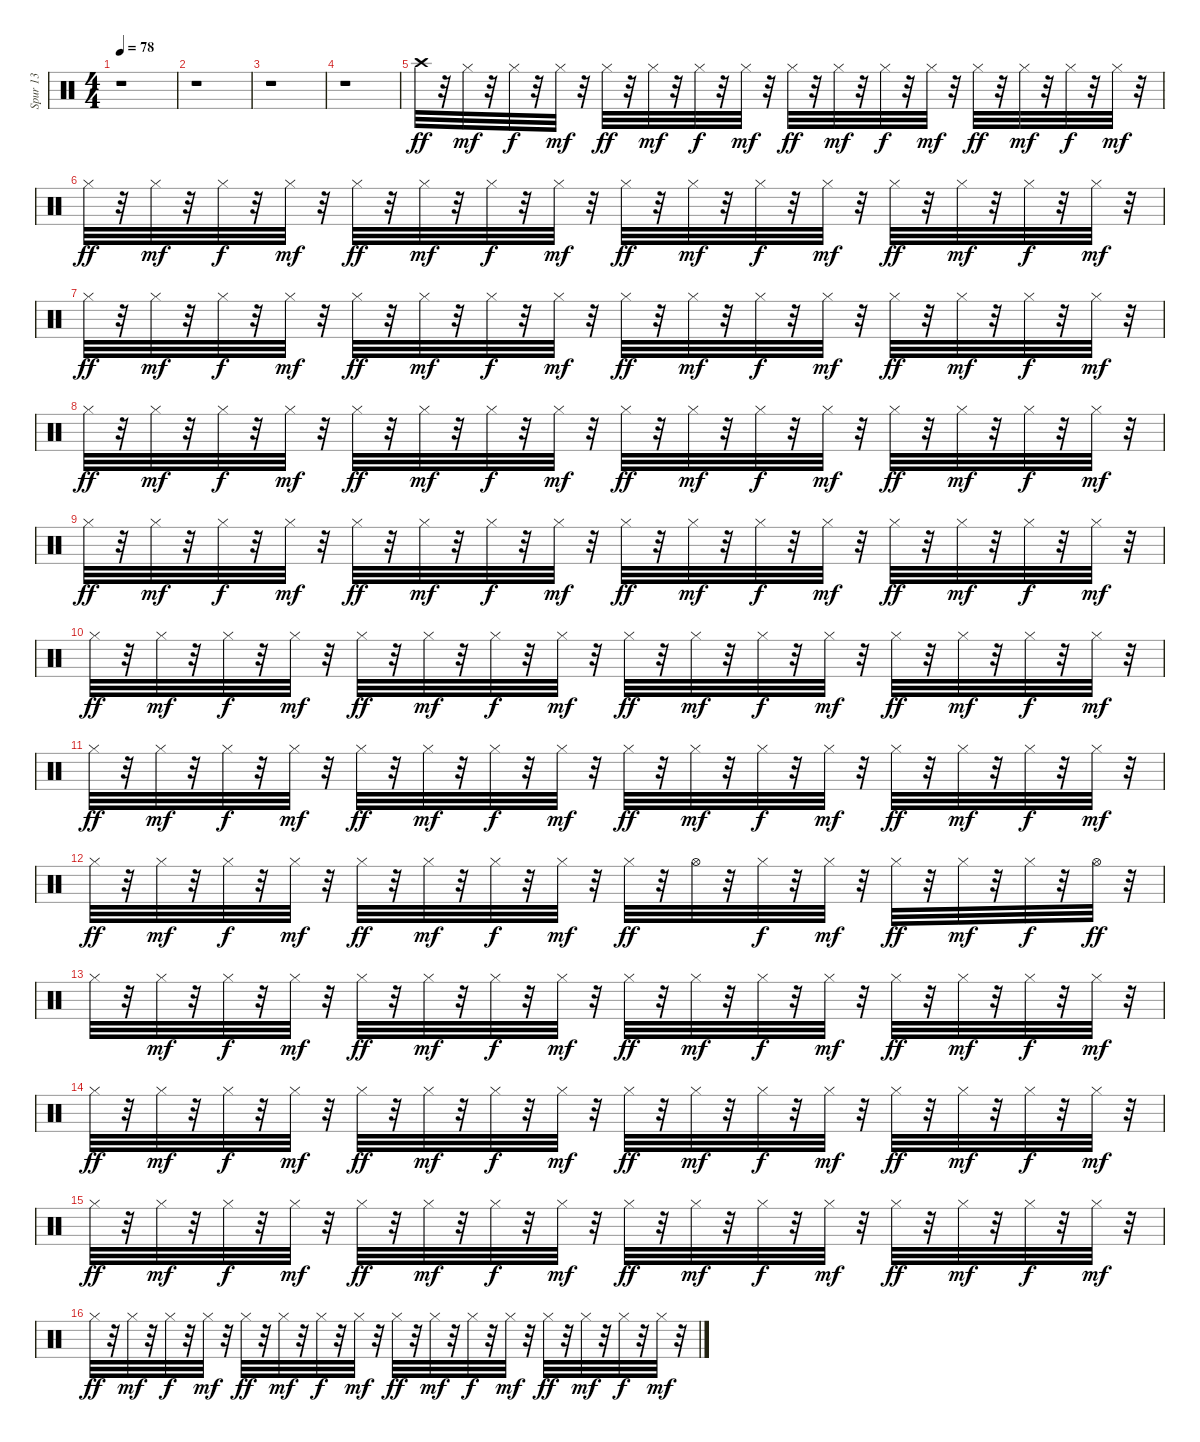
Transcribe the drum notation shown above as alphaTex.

\track ("Spur 13" "Spur 13") {instrument percussion}
\staff {score}
\articulation defaults
\ts (4 4)
\tempo 78
\clef neutral
\ks c
r.1{dy ff} |
r.1 |
r.1 |
r.1 |
"Crash high (hit)".32{volume 11 balance 8} r.32 "Hi-Hat (closed)".32{dy mf} r.32 "Hi-Hat (closed)".32{dy f} r.32 "Hi-Hat (closed)".32{dy mf} r.32 "Hi-Hat (closed)".32{dy ff} r.32 "Hi-Hat (closed)".32{dy mf} r.32 "Hi-Hat (closed)".32{dy f} r.32 "Hi-Hat (closed)".32{dy mf} r.32 "Hi-Hat (closed)".32{dy ff} r.32 "Hi-Hat (closed)".32{dy mf} r.32 "Hi-Hat (closed)".32{dy f} r.32 "Hi-Hat (closed)".32{dy mf} r.32 "Hi-Hat (closed)".32{dy ff} r.32 "Hi-Hat (closed)".32{dy mf} r.32 "Hi-Hat (closed)".32{dy f} r.32 "Hi-Hat (closed)".32{dy mf} r.32 |
"Hi-Hat (closed)".32{dy ff} r.32 "Hi-Hat (closed)".32{dy mf} r.32 "Hi-Hat (closed)".32{dy f} r.32 "Hi-Hat (closed)".32{dy mf} r.32 "Hi-Hat (closed)".32{dy ff} r.32 "Hi-Hat (closed)".32{dy mf} r.32 "Hi-Hat (closed)".32{dy f} r.32 "Hi-Hat (closed)".32{dy mf} r.32 "Hi-Hat (closed)".32{dy ff} r.32 "Hi-Hat (closed)".32{dy mf} r.32 "Hi-Hat (closed)".32{dy f} r.32 "Hi-Hat (closed)".32{dy mf} r.32 "Hi-Hat (closed)".32{dy ff} r.32 "Hi-Hat (closed)".32{dy mf} r.32 "Hi-Hat (closed)".32{dy f} r.32 "Hi-Hat (closed)".32{dy mf} r.32 |
"Hi-Hat (closed)".32{dy ff} r.32 "Hi-Hat (closed)".32{dy mf} r.32 "Hi-Hat (closed)".32{dy f} r.32 "Hi-Hat (closed)".32{dy mf} r.32 "Hi-Hat (closed)".32{dy ff} r.32 "Hi-Hat (closed)".32{dy mf} r.32 "Hi-Hat (closed)".32{dy f} r.32 "Hi-Hat (closed)".32{dy mf} r.32 "Hi-Hat (closed)".32{dy ff} r.32 "Hi-Hat (closed)".32{dy mf} r.32 "Hi-Hat (closed)".32{dy f} r.32 "Hi-Hat (closed)".32{dy mf} r.32 "Hi-Hat (closed)".32{dy ff} r.32 "Hi-Hat (closed)".32{dy mf} r.32 "Hi-Hat (closed)".32{dy f} r.32 "Hi-Hat (closed)".32{dy mf} r.32 |
"Hi-Hat (closed)".32{dy ff} r.32 "Hi-Hat (closed)".32{dy mf} r.32 "Hi-Hat (closed)".32{dy f} r.32 "Hi-Hat (closed)".32{dy mf} r.32 "Hi-Hat (closed)".32{dy ff} r.32 "Hi-Hat (closed)".32{dy mf} r.32 "Hi-Hat (closed)".32{dy f} r.32 "Hi-Hat (closed)".32{dy mf} r.32 "Hi-Hat (closed)".32{dy ff} r.32 "Hi-Hat (closed)".32{dy mf} r.32 "Hi-Hat (closed)".32{dy f} r.32 "Hi-Hat (closed)".32{dy mf} r.32 "Hi-Hat (closed)".32{dy ff} r.32 "Hi-Hat (closed)".32{dy mf} r.32 "Hi-Hat (closed)".32{dy f} r.32 "Hi-Hat (closed)".32{dy mf} r.32 |
"Hi-Hat (closed)".32{dy ff} r.32 "Hi-Hat (closed)".32{dy mf} r.32 "Hi-Hat (closed)".32{dy f} r.32 "Hi-Hat (closed)".32{dy mf} r.32 "Hi-Hat (closed)".32{dy ff} r.32 "Hi-Hat (closed)".32{dy mf} r.32 "Hi-Hat (closed)".32{dy f} r.32 "Hi-Hat (closed)".32{dy mf} r.32 "Hi-Hat (closed)".32{dy ff} r.32 "Hi-Hat (closed)".32{dy mf} r.32 "Hi-Hat (closed)".32{dy f} r.32 "Hi-Hat (closed)".32{dy mf} r.32 "Hi-Hat (closed)".32{dy ff} r.32 "Hi-Hat (closed)".32{dy mf} r.32 "Hi-Hat (closed)".32{dy f} r.32 "Hi-Hat (closed)".32{dy mf} r.32 |
"Hi-Hat (closed)".32{dy ff} r.32 "Hi-Hat (closed)".32{dy mf} r.32 "Hi-Hat (closed)".32{dy f} r.32 "Hi-Hat (closed)".32{dy mf} r.32 "Hi-Hat (closed)".32{dy ff} r.32 "Hi-Hat (closed)".32{dy mf} r.32 "Hi-Hat (closed)".32{dy f} r.32 "Hi-Hat (closed)".32{dy mf} r.32 "Hi-Hat (closed)".32{dy ff} r.32 "Hi-Hat (closed)".32{dy mf} r.32 "Hi-Hat (closed)".32{dy f} r.32 "Hi-Hat (closed)".32{dy mf} r.32 "Hi-Hat (closed)".32{dy ff} r.32 "Hi-Hat (closed)".32{dy mf} r.32 "Hi-Hat (closed)".32{dy f} r.32 "Hi-Hat (closed)".32{dy mf} r.32 |
"Hi-Hat (closed)".32{dy ff} r.32 "Hi-Hat (closed)".32{dy mf} r.32 "Hi-Hat (closed)".32{dy f} r.32 "Hi-Hat (closed)".32{dy mf} r.32 "Hi-Hat (closed)".32{dy ff} r.32 "Hi-Hat (closed)".32{dy mf} r.32 "Hi-Hat (closed)".32{dy f} r.32 "Hi-Hat (closed)".32{dy mf} r.32 "Hi-Hat (closed)".32{dy ff} r.32 "Hi-Hat (closed)".32{dy mf} r.32 "Hi-Hat (closed)".32{dy f} r.32 "Hi-Hat (closed)".32{dy mf} r.32 "Hi-Hat (closed)".32{dy ff} r.32 "Hi-Hat (closed)".32{dy mf} r.32 "Hi-Hat (closed)".32{dy f} r.32 "Hi-Hat (closed)".32{dy mf} r.32 |
"Hi-Hat (closed)".32{dy ff} r.32 "Hi-Hat (closed)".32{dy mf} r.32 "Hi-Hat (closed)".32{dy f} r.32 "Hi-Hat (closed)".32{dy mf} r.32 "Hi-Hat (closed)".32{dy ff} r.32 "Hi-Hat (closed)".32{dy mf} r.32 "Hi-Hat (closed)".32{dy f} r.32 "Hi-Hat (closed)".32{dy mf} r.32 "Hi-Hat (closed)".32{dy ff} r.32 "Hi-Hat (open)".32 r.32 "Hi-Hat (closed)".32{dy f} r.32 "Hi-Hat (closed)".32{dy mf} r.32 "Hi-Hat (closed)".32{dy ff} r.32 "Hi-Hat (closed)".32{dy mf} r.32 "Hi-Hat (closed)".32{dy f} r.32 "Hi-Hat (open)".32{dy ff} r.32 |
"Hi-Hat (closed)".32 r.32 "Hi-Hat (closed)".32{dy mf} r.32 "Hi-Hat (closed)".32{dy f} r.32 "Hi-Hat (closed)".32{dy mf} r.32 "Hi-Hat (closed)".32{dy ff} r.32 "Hi-Hat (closed)".32{dy mf} r.32 "Hi-Hat (closed)".32{dy f} r.32 "Hi-Hat (closed)".32{dy mf} r.32 "Hi-Hat (closed)".32{dy ff} r.32 "Hi-Hat (closed)".32{dy mf} r.32 "Hi-Hat (closed)".32{dy f} r.32 "Hi-Hat (closed)".32{dy mf} r.32 "Hi-Hat (closed)".32{dy ff} r.32 "Hi-Hat (closed)".32{dy mf} r.32 "Hi-Hat (closed)".32{dy f} r.32 "Hi-Hat (closed)".32{dy mf} r.32 |
"Hi-Hat (closed)".32{dy ff} r.32 "Hi-Hat (closed)".32{dy mf} r.32 "Hi-Hat (closed)".32{dy f} r.32 "Hi-Hat (closed)".32{dy mf} r.32 "Hi-Hat (closed)".32{dy ff} r.32 "Hi-Hat (closed)".32{dy mf} r.32 "Hi-Hat (closed)".32{dy f} r.32 "Hi-Hat (closed)".32{dy mf} r.32 "Hi-Hat (closed)".32{dy ff} r.32 "Hi-Hat (closed)".32{dy mf} r.32 "Hi-Hat (closed)".32{dy f} r.32 "Hi-Hat (closed)".32{dy mf} r.32 "Hi-Hat (closed)".32{dy ff} r.32 "Hi-Hat (closed)".32{dy mf} r.32 "Hi-Hat (closed)".32{dy f} r.32 "Hi-Hat (closed)".32{dy mf} r.32 |
"Hi-Hat (closed)".32{dy ff} r.32 "Hi-Hat (closed)".32{dy mf} r.32 "Hi-Hat (closed)".32{dy f} r.32 "Hi-Hat (closed)".32{dy mf} r.32 "Hi-Hat (closed)".32{dy ff} r.32 "Hi-Hat (closed)".32{dy mf} r.32 "Hi-Hat (closed)".32{dy f} r.32 "Hi-Hat (closed)".32{dy mf} r.32 "Hi-Hat (closed)".32{dy ff} r.32 "Hi-Hat (closed)".32{dy mf} r.32 "Hi-Hat (closed)".32{dy f} r.32 "Hi-Hat (closed)".32{dy mf} r.32 "Hi-Hat (closed)".32{dy ff} r.32 "Hi-Hat (closed)".32{dy mf} r.32 "Hi-Hat (closed)".32{dy f} r.32 "Hi-Hat (closed)".32{dy mf} r.32 |
"Hi-Hat (closed)".32{dy ff} r.32 "Hi-Hat (closed)".32{dy mf} r.32 "Hi-Hat (closed)".32{dy f} r.32 "Hi-Hat (closed)".32{dy mf} r.32 "Hi-Hat (closed)".32{dy ff} r.32 "Hi-Hat (closed)".32{dy mf} r.32 "Hi-Hat (closed)".32{dy f} r.32 "Hi-Hat (closed)".32{dy mf} r.32 "Hi-Hat (closed)".32{dy ff} r.32 "Hi-Hat (closed)".32{dy mf} r.32 "Hi-Hat (closed)".32{dy f} r.32 "Hi-Hat (closed)".32{dy mf} r.32 "Hi-Hat (closed)".32{dy ff} r.32 "Hi-Hat (closed)".32{dy mf} r.32 "Hi-Hat (closed)".32{dy f} r.32 "Hi-Hat (closed)".32{dy mf} r.32
